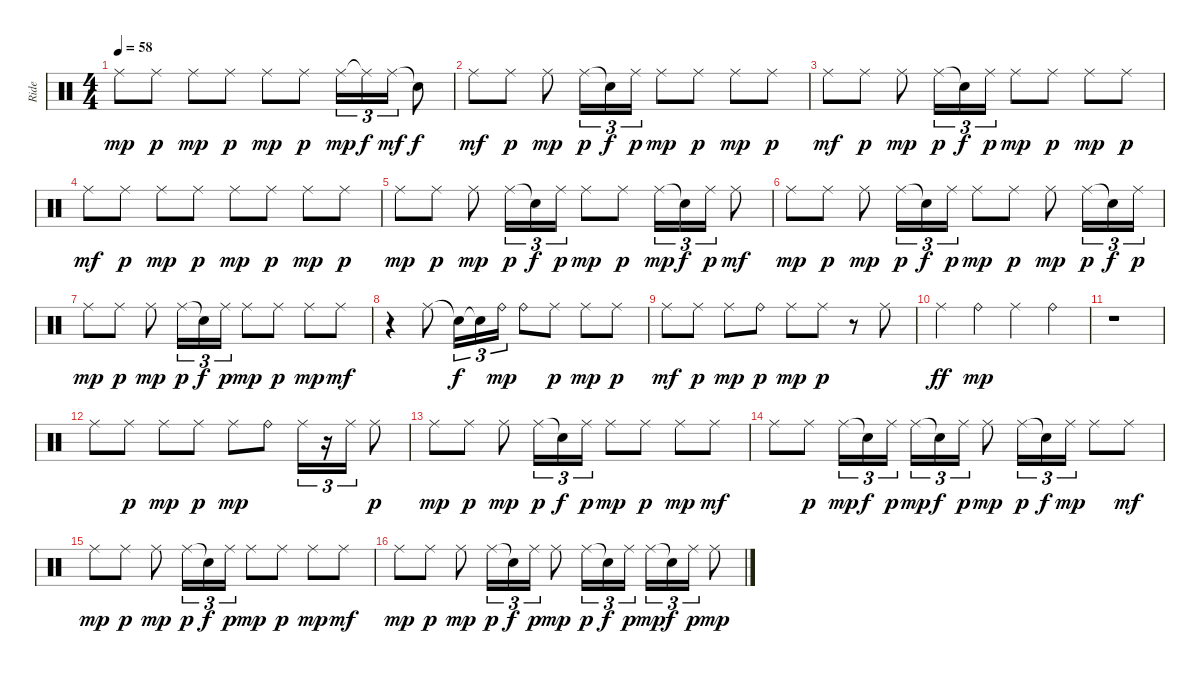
\track ("Ride" "Ride") {instrument percussion}
\staff {score}
\articulation defaults
\ts (4 4)
\tempo 58
\clef neutral
\ks c "Ride (middle)".8{dy mp} "Ride (middle)".8{dy p} "Ride (middle)".8{dy mp} "Ride (middle)".8{dy p} "Ride (middle)".8{dy mp} "Ride (middle)".8{dy p} "Ride (middle)".16{tu (3 2) dy mp} "Ride (middle)"{t}.16{tu (3 2) dy f} "Ride (middle)".16{tu (3 2) dy mf} "Snare (hit)"{t}.8{dy f}
|
"Ride (middle)".8{dy mf} "Ride (middle)".8{dy p} "Ride (middle)".8{dy mp} "Ride (middle)".16{tu (3 2) dy p} "Snare (hit)"{t}.16{tu (3 2) dy f} "Ride (middle)".16{tu (3 2) dy p} "Ride (middle)".8{dy mp} "Ride (middle)".8{dy p} "Ride (middle)".8{dy mp} "Ride (middle)".8{dy p} |
"Ride (middle)".8{dy mf} "Ride (middle)".8{dy p} "Ride (middle)".8{dy mp} "Ride (middle)".16{tu (3 2) dy p} "Snare (hit)"{t}.16{tu (3 2) dy f} "Ride (middle)".16{tu (3 2) dy p} "Ride (middle)".8{dy mp} "Ride (middle)".8{dy p} "Ride (middle)".8{dy mp} "Ride (middle)".8{dy p} |
"Ride (middle)".8{dy mf} "Ride (middle)".8{dy p} "Ride (middle)".8{dy mp} "Ride (middle)".8{dy p} "Ride (middle)".8{dy mp} "Ride (middle)".8{dy p} "Ride (middle)".8{dy mp} "Ride (middle)".8{dy p} |
"Ride (middle)".8{dy mp} "Ride (middle)".8{dy p} "Ride (middle)".8{dy mp} "Ride (middle)".16{tu (3 2) dy p} "Snare (hit)"{t}.16{tu (3 2) dy f} "Ride (middle)".16{tu (3 2) dy p} "Ride (middle)".8{dy mp} "Ride (middle)".8{dy p} "Ride (middle)".16{tu (3 2) dy mp} "Snare (hit)"{t}.16{tu (3 2) dy f} "Ride (middle)".16{tu (3 2) dy p} "Ride (middle)".8{dy mf} |
"Ride (middle)".8{dy mp} "Ride (middle)".8{dy p} "Ride (middle)".8{dy mp} "Ride (middle)".16{tu (3 2) dy p} "Snare (hit)"{t}.16{tu (3 2) dy f} "Ride (middle)".16{tu (3 2) dy p} "Ride (middle)".8{dy mp} "Ride (middle)".8{dy p} "Ride (middle)".8{dy mp} "Ride (middle)".16{tu (3 2) dy p} "Snare (hit)"{t}.16{tu (3 2) dy f} "Ride (middle)".16{tu (3 2) dy p} |
"Ride (middle)".8{dy mp} "Ride (middle)".8{dy p} "Ride (middle)".8{dy mp} "Ride (middle)".16{tu (3 2) dy p} "Snare (hit)"{t}.16{tu (3 2) dy f} "Ride (middle)".16{tu (3 2) dy p} "Ride (middle)".8{dy mp} "Ride (middle)".8{dy p} "Ride (middle)".8{dy mp} "Ride (middle)".8{dy mf} |
r.4 "Ride (middle)".8 "Snare (hit)"{t}.16{tu (3 2) dy f} "Snare (hit)"{t}.16{tu (3 2)} "Ride (bell)".16{tu (3 2) dy mp} "Ride (bell)".8 "Ride (middle)".8{dy p} "Ride (middle)".8{dy mp} "Ride (middle)".8{dy p} |
"Ride (middle)".8{dy mf} "Ride (middle)".8{dy p} "Ride (middle)".8{dy mp} "Ride (bell)".8{dy p} "Ride (middle)".8{dy mp} "Ride (middle)".8{dy p} r.8 "Ride (middle)".8 |
"Ride (middle)".4{dy ff} "Ride (bell)".4{dy mp} "Ride (middle)".4 "Ride (bell)".4 |
r.1 |
"Ride (middle)".8 "Ride (middle)".8{dy p} "Ride (middle)".8{dy mp} "Ride (middle)".8{dy p} "Ride (middle)".8{dy mp} "Ride (bell)".8 "Ride (middle)".16{tu (3 2)} r.16{tu (3 2)} "Ride (middle)".16{tu (3 2)} "Ride (middle)".8{dy p} |
"Ride (middle)".8{dy mp} "Ride (middle)".8{dy p} "Ride (middle)".8{dy mp} "Ride (middle)".16{tu (3 2) dy p} "Snare (hit)"{t}.16{tu (3 2) dy f} "Ride (middle)".16{tu (3 2) dy p} "Ride (middle)".8{dy mp} "Ride (middle)".8{dy p} "Ride (middle)".8{dy mp} "Ride (middle)".8{dy mf} |
"Ride (middle)".8 "Ride (middle)".8{dy p} "Ride (middle)".16{tu (3 2) dy mp} "Snare (hit)"{t}.16{tu (3 2) dy f} "Ride (middle)".16{tu (3 2) dy p} "Ride (middle)".16{tu (3 2) dy mp} "Snare (hit)"{t}.16{tu (3 2) dy f} "Ride (middle)".16{tu (3 2) dy p} "Ride (middle)".8{dy mp} "Ride (middle)".16{tu (3 2) dy p} "Snare (hit)"{t}.16{tu (3 2) dy f} "Ride (middle)".16{tu (3 2) dy mp} "Ride (middle)".8 "Ride (middle)".8{dy mf} |
"Ride (middle)".8{dy mp} "Ride (middle)".8{dy p} "Ride (middle)".8{dy mp} "Ride (middle)".16{tu (3 2) dy p} "Snare (hit)"{t}.16{tu (3 2) dy f} "Ride (middle)".16{tu (3 2) dy p} "Ride (middle)".8{dy mp} "Ride (middle)".8{dy p} "Ride (middle)".8{dy mp} "Ride (middle)".8{dy mf} |
"Ride (middle)".8{dy mp} "Ride (middle)".8{dy p} "Ride (middle)".8{dy mp} "Ride (middle)".16{tu (3 2) dy p} "Snare (hit)"{t}.16{tu (3 2) dy f} "Ride (middle)".16{tu (3 2) dy p} "Ride (middle)".8{dy mp} "Ride (middle)".16{tu (3 2) dy p} "Snare (hit)"{t}.16{tu (3 2) dy f} "Ride (middle)".16{tu (3 2) dy p} "Ride (middle)".16{tu (3 2) dy mp} "Snare (hit)"{t}.16{tu (3 2) dy f} "Ride (middle)".16{tu (3 2) dy p} "Ride (middle)".8{dy mp}
